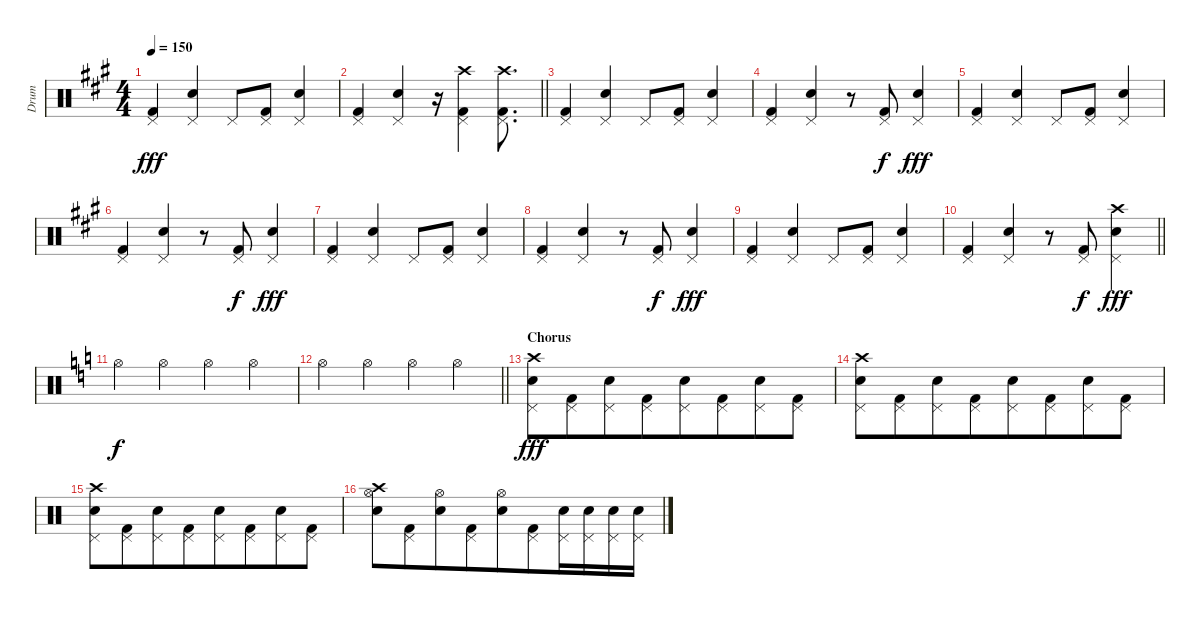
\track ("Drum" "Drum") {instrument percussion}
\staff {score}
\articulation defaults
\ts (4 4)
\tempo 150
\clef neutral
\ks a
("Pedal Hi-Hat (hit)" "Kick (hit) 2").4{dy fff} ("Pedal Hi-Hat (hit)" "Snare (hit) 2").4 "Pedal Hi-Hat (hit)".8 ("Pedal Hi-Hat (hit)" "Kick (hit) 2").8 ("Pedal Hi-Hat (hit)" "Snare (hit) 2").4 |
\barLineRight lightlight
("Pedal Hi-Hat (hit)" "Kick (hit) 2").4 ("Pedal Hi-Hat (hit)" "Snare (hit) 2").4 r.16 ("Crash high (hit)" "Pedal Hi-Hat (hit)" "Kick (hit) 2").4 ("Crash high (hit)" "Pedal Hi-Hat (hit)" "Kick (hit) 2").8{d} |
("Pedal Hi-Hat (hit)" "Kick (hit) 2").4 ("Pedal Hi-Hat (hit)" "Snare (hit) 2").4 "Pedal Hi-Hat (hit)".8 ("Pedal Hi-Hat (hit)" "Kick (hit) 2").8 ("Pedal Hi-Hat (hit)" "Snare (hit) 2").4 |
("Pedal Hi-Hat (hit)" "Kick (hit) 2").4 ("Pedal Hi-Hat (hit)" "Snare (hit) 2").4 r.8 ("Pedal Hi-Hat (hit)" "Kick (hit) 2").8{dy f} ("Pedal Hi-Hat (hit)" "Snare (hit) 2").4{dy fff} |
("Pedal Hi-Hat (hit)" "Kick (hit) 2").4 ("Pedal Hi-Hat (hit)" "Snare (hit) 2").4 "Pedal Hi-Hat (hit)".8 ("Pedal Hi-Hat (hit)" "Kick (hit) 2").8 ("Pedal Hi-Hat (hit)" "Snare (hit) 2").4 |
("Pedal Hi-Hat (hit)" "Kick (hit) 2").4 ("Pedal Hi-Hat (hit)" "Snare (hit) 2").4 r.8 ("Pedal Hi-Hat (hit)" "Kick (hit) 2").8{dy f} ("Pedal Hi-Hat (hit)" "Snare (hit) 2").4{dy fff} |
("Pedal Hi-Hat (hit)" "Kick (hit) 2").4 ("Pedal Hi-Hat (hit)" "Snare (hit) 2").4 "Pedal Hi-Hat (hit)".8 ("Pedal Hi-Hat (hit)" "Kick (hit) 2").8 ("Pedal Hi-Hat (hit)" "Snare (hit) 2").4 |
("Pedal Hi-Hat (hit)" "Kick (hit) 2").4 ("Pedal Hi-Hat (hit)" "Snare (hit) 2").4 r.8 ("Pedal Hi-Hat (hit)" "Kick (hit) 2").8{dy f} ("Pedal Hi-Hat (hit)" "Snare (hit) 2").4{dy fff} |
("Pedal Hi-Hat (hit)" "Kick (hit) 2").4 ("Pedal Hi-Hat (hit)" "Snare (hit) 2").4 "Pedal Hi-Hat (hit)".8 ("Pedal Hi-Hat (hit)" "Kick (hit) 2").8 ("Pedal Hi-Hat (hit)" "Snare (hit) 2").4 |
\barLineRight lightlight
("Pedal Hi-Hat (hit)" "Kick (hit) 2").4 ("Pedal Hi-Hat (hit)" "Snare (hit) 2").4 r.8 ("Pedal Hi-Hat (hit)" "Kick (hit) 2").8{dy f} ("Crash high (hit)" "Pedal Hi-Hat (hit)" "Snare (hit) 2").4{dy fff} |
\ks c "Hi-Hat (open)".4{dy f} "Hi-Hat (open)".4 "Hi-Hat (open)".4 "Hi-Hat (open)".4
|
\barLineRight lightlight "Hi-Hat (open)".4 "Hi-Hat (open)".4 "Hi-Hat (open)".4 "Hi-Hat (open)".4
|
\section ("" "Chorus")
("Crash high (hit)" "Pedal Hi-Hat (hit)" "Snare (hit) 2").8{dy fff beam merge} ("Pedal Hi-Hat (hit)" "Kick (hit) 2").8{beam merge} ("Pedal Hi-Hat (hit)" "Snare (hit) 2").8{beam merge} ("Pedal Hi-Hat (hit)" "Kick (hit) 2").8{beam merge} ("Pedal Hi-Hat (hit)" "Snare (hit) 2").8{beam merge} ("Pedal Hi-Hat (hit)" "Kick (hit) 2").8{beam merge} ("Pedal Hi-Hat (hit)" "Snare (hit) 2").8{beam merge} ("Pedal Hi-Hat (hit)" "Kick (hit) 2").8 |
("Crash high (hit)" "Pedal Hi-Hat (hit)" "Snare (hit) 2").8{beam merge} ("Pedal Hi-Hat (hit)" "Kick (hit) 2").8{beam merge} ("Pedal Hi-Hat (hit)" "Snare (hit) 2").8{beam merge} ("Pedal Hi-Hat (hit)" "Kick (hit) 2").8{beam merge} ("Pedal Hi-Hat (hit)" "Snare (hit) 2").8{beam merge} ("Pedal Hi-Hat (hit)" "Kick (hit) 2").8{beam merge} ("Pedal Hi-Hat (hit)" "Snare (hit) 2").8{beam merge} ("Pedal Hi-Hat (hit)" "Kick (hit) 2").8 |
("Crash high (hit)" "Pedal Hi-Hat (hit)" "Snare (hit) 2").8{beam merge} ("Pedal Hi-Hat (hit)" "Kick (hit) 2").8{beam merge} ("Pedal Hi-Hat (hit)" "Snare (hit) 2").8{beam merge} ("Pedal Hi-Hat (hit)" "Kick (hit) 2").8{beam merge} ("Pedal Hi-Hat (hit)" "Snare (hit) 2").8{beam merge} ("Pedal Hi-Hat (hit)" "Kick (hit) 2").8{beam merge} ("Pedal Hi-Hat (hit)" "Snare (hit) 2").8{beam merge} ("Pedal Hi-Hat (hit)" "Kick (hit) 2").8 |
("Crash high (hit)" "Hi-Hat (open)" "Snare (hit) 2").8{beam merge} ("Pedal Hi-Hat (hit)" "Kick (hit) 2").8{beam merge} ("Hi-Hat (open)" "Snare (hit) 2").8{beam merge} ("Pedal Hi-Hat (hit)" "Kick (hit) 2").8{beam merge} ("Hi-Hat (open)" "Snare (hit) 2").8{beam merge} ("Pedal Hi-Hat (hit)" "Kick (hit) 2").8{beam merge} ("Pedal Hi-Hat (hit)" "Snare (hit) 2").16{beam merge} ("Pedal Hi-Hat (hit)" "Snare (hit) 2").16{beam merge} ("Pedal Hi-Hat (hit)" "Snare (hit) 2").16{beam merge} ("Pedal Hi-Hat (hit)" "Snare (hit) 2").16
